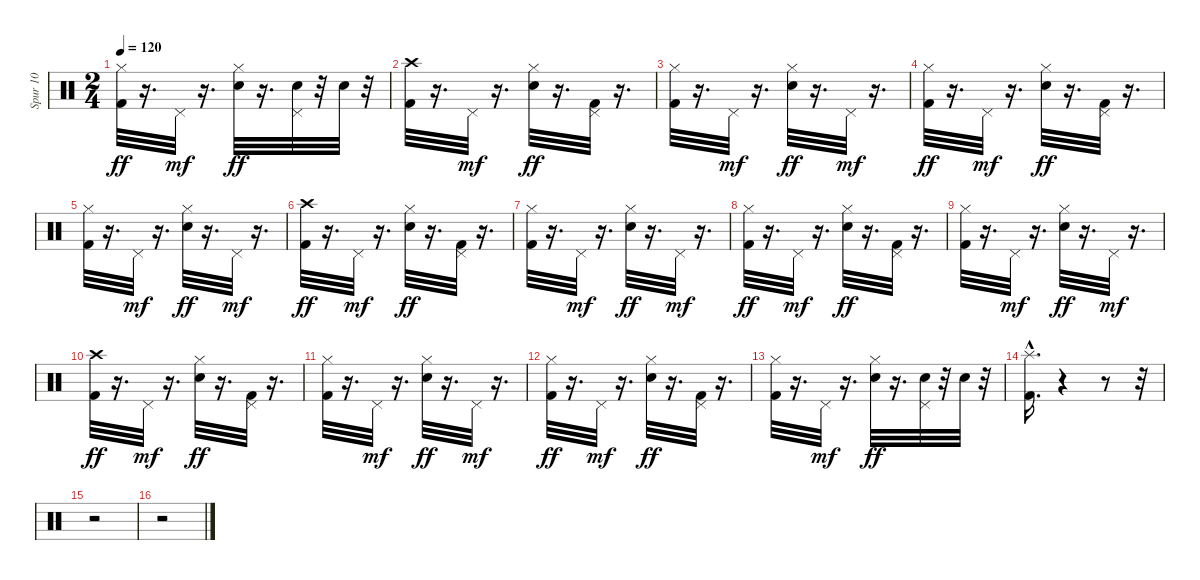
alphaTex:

\track ("Spur 10" "Spur 10") {instrument percussion}
\staff {score}
\articulation defaults
\ts (2 4)
\tempo 120
\clef neutral
\ks c
("Hi-Hat (closed)" "Kick (hit) 2").32{dy ff} r.16{d} "Pedal Hi-Hat (hit)".32{dy mf} r.16{d} ("Hi-Hat (closed)" "Snare (hit) 2").32{dy ff} r.16{d} ("Pedal Hi-Hat (hit)" "Snare (hit) 2").32 r.32 "Snare (hit) 2".32 r.32 |
("Crash high (hit)" "Kick (hit) 2").32 r.16{d} "Pedal Hi-Hat (hit)".32{dy mf} r.16{d} ("Hi-Hat (closed)" "Snare (hit) 2").32{dy ff} r.16{d} ("Pedal Hi-Hat (hit)" "Kick (hit) 2").32 r.16{d} |
("Hi-Hat (closed)" "Kick (hit) 2").32 r.16{d} "Pedal Hi-Hat (hit)".32{dy mf} r.16{d} ("Hi-Hat (closed)" "Snare (hit) 2").32{dy ff} r.16{d} "Pedal Hi-Hat (hit)".32{dy mf} r.16{d} |
("Hi-Hat (closed)" "Kick (hit) 2").32{dy ff} r.16{d} "Pedal Hi-Hat (hit)".32{dy mf} r.16{d} ("Hi-Hat (closed)" "Snare (hit) 2").32{dy ff} r.16{d} ("Pedal Hi-Hat (hit)" "Kick (hit) 2").32 r.16{d} |
("Hi-Hat (closed)" "Kick (hit) 2").32 r.16{d} "Pedal Hi-Hat (hit)".32{dy mf} r.16{d} ("Hi-Hat (closed)" "Snare (hit) 2").32{dy ff} r.16{d} "Pedal Hi-Hat (hit)".32{dy mf} r.16{d} |
("Crash high (hit)" "Kick (hit) 2").32{dy ff} r.16{d} "Pedal Hi-Hat (hit)".32{dy mf} r.16{d} ("Hi-Hat (closed)" "Snare (hit) 2").32{dy ff} r.16{d} ("Pedal Hi-Hat (hit)" "Kick (hit) 2").32 r.16{d} |
("Hi-Hat (closed)" "Kick (hit) 2").32 r.16{d} "Pedal Hi-Hat (hit)".32{dy mf} r.16{d} ("Hi-Hat (closed)" "Snare (hit) 2").32{dy ff} r.16{d} "Pedal Hi-Hat (hit)".32{dy mf} r.16{d} |
("Hi-Hat (closed)" "Kick (hit) 2").32{dy ff} r.16{d} "Pedal Hi-Hat (hit)".32{dy mf} r.16{d} ("Hi-Hat (closed)" "Snare (hit) 2").32{dy ff} r.16{d} ("Pedal Hi-Hat (hit)" "Kick (hit) 2").32 r.16{d} |
("Hi-Hat (closed)" "Kick (hit) 2").32 r.16{d} "Pedal Hi-Hat (hit)".32{dy mf} r.16{d} ("Hi-Hat (closed)" "Snare (hit) 2").32{dy ff} r.16{d} "Pedal Hi-Hat (hit)".32{dy mf} r.16{d} |
("Crash high (hit)" "Kick (hit) 2").32{dy ff} r.16{d} "Pedal Hi-Hat (hit)".32{dy mf} r.16{d} ("Hi-Hat (closed)" "Snare (hit) 2").32{dy ff} r.16{d} ("Pedal Hi-Hat (hit)" "Kick (hit) 2").32 r.16{d} |
("Hi-Hat (closed)" "Kick (hit) 2").32 r.16{d} "Pedal Hi-Hat (hit)".32{dy mf} r.16{d} ("Hi-Hat (closed)" "Snare (hit) 2").32{dy ff} r.16{d} "Pedal Hi-Hat (hit)".32{dy mf} r.16{d} |
("Hi-Hat (closed)" "Kick (hit) 2").32{dy ff} r.16{d} "Pedal Hi-Hat (hit)".32{dy mf} r.16{d} ("Hi-Hat (closed)" "Snare (hit) 2").32{dy ff} r.16{d} ("Pedal Hi-Hat (hit)" "Kick (hit) 2").32 r.16{d} |
("Hi-Hat (closed)" "Kick (hit) 2").32 r.16{d} "Pedal Hi-Hat (hit)".32{dy mf} r.16{d} ("Hi-Hat (closed)" "Snare (hit) 2").32{dy ff} r.16{d} ("Pedal Hi-Hat (hit)" "Snare (hit) 2").32 r.32 "Snare (hit) 2".32 r.32 |
("Splash (hit)" "Kick (hit) 2"{hac}).16{d} r.4 r.8 r.32 |
r.2 |
r.2
